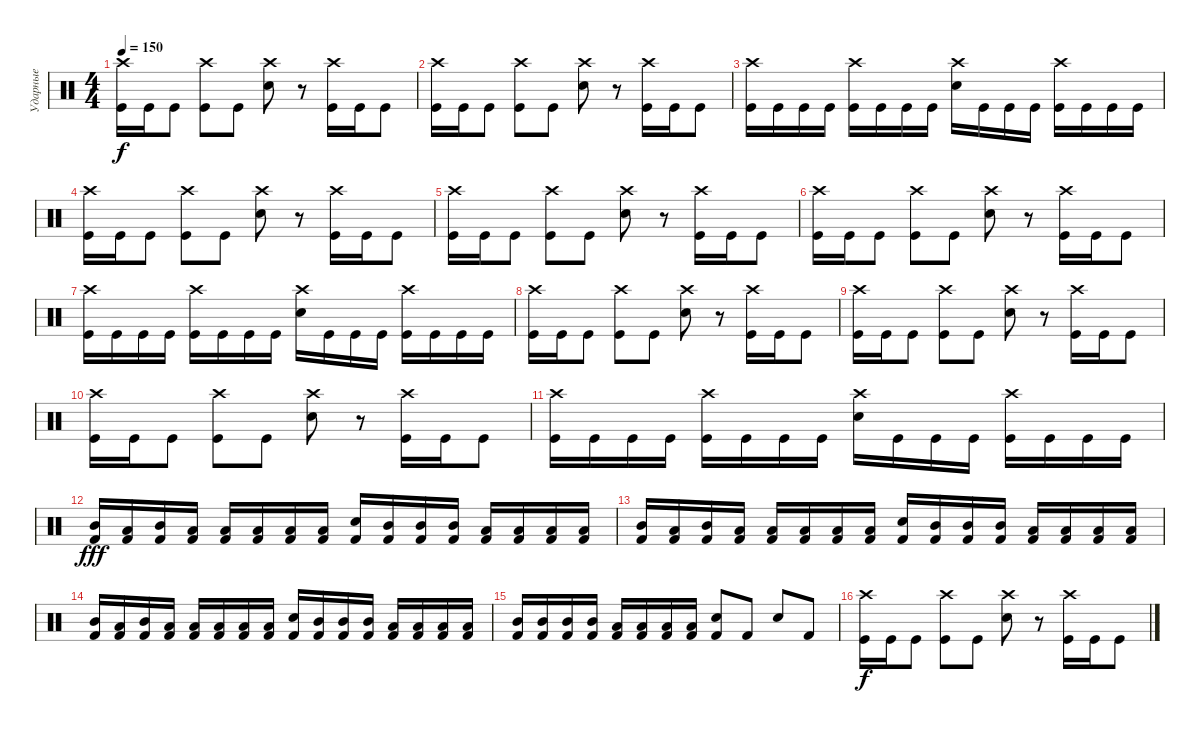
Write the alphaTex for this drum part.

\track ("Ударные" "Ударные") {instrument percussion}
\staff {score}
\articulation defaults
\ts (4 4)
\tempo 150
\clef neutral
\ks c
("Kick (hit)" "Crash high (hit)").16{dy f} "Kick (hit)".16 "Kick (hit)".8 ("Crash high (hit)" "Kick (hit)").8 "Kick (hit)".8 ("Snare (hit) 2" "Crash high (hit)").8 r.8 ("Kick (hit)" "Crash high (hit)").16 "Kick (hit)".16 "Kick (hit)".8 |
("Kick (hit)" "Crash high (hit)").16 "Kick (hit)".16 "Kick (hit)".8 ("Crash high (hit)" "Kick (hit)").8 "Kick (hit)".8 ("Snare (hit) 2" "Crash high (hit)").8 r.8 ("Kick (hit)" "Crash high (hit)").16 "Kick (hit)".16 "Kick (hit)".8 |
("Kick (hit)" "Crash high (hit)").16 "Kick (hit)".16 "Kick (hit)".16 "Kick (hit)".16 ("Kick (hit)" "Crash high (hit)").16 "Kick (hit)".16 "Kick (hit)".16 "Kick (hit)".16 ("Snare (hit) 2" "Crash high (hit)").16 "Kick (hit)".16 "Kick (hit)".16 "Kick (hit)".16 ("Kick (hit)" "Crash high (hit)").16 "Kick (hit)".16 "Kick (hit)".16 "Kick (hit)".16 |
("Kick (hit)" "Crash high (hit)").16 "Kick (hit)".16 "Kick (hit)".8 ("Crash high (hit)" "Kick (hit)").8 "Kick (hit)".8 ("Snare (hit) 2" "Crash high (hit)").8 r.8 ("Kick (hit)" "Crash high (hit)").16 "Kick (hit)".16 "Kick (hit)".8 |
("Kick (hit)" "Crash high (hit)").16 "Kick (hit)".16 "Kick (hit)".8 ("Crash high (hit)" "Kick (hit)").8 "Kick (hit)".8 ("Snare (hit) 2" "Crash high (hit)").8 r.8 ("Kick (hit)" "Crash high (hit)").16 "Kick (hit)".16 "Kick (hit)".8 |
("Kick (hit)" "Crash high (hit)").16 "Kick (hit)".16 "Kick (hit)".8 ("Crash high (hit)" "Kick (hit)").8 "Kick (hit)".8 ("Snare (hit) 2" "Crash high (hit)").8 r.8 ("Kick (hit)" "Crash high (hit)").16 "Kick (hit)".16 "Kick (hit)".8 |
("Kick (hit)" "Crash high (hit)").16 "Kick (hit)".16 "Kick (hit)".16 "Kick (hit)".16 ("Kick (hit)" "Crash high (hit)").16 "Kick (hit)".16 "Kick (hit)".16 "Kick (hit)".16 ("Snare (hit) 2" "Crash high (hit)").16 "Kick (hit)".16 "Kick (hit)".16 "Kick (hit)".16 ("Kick (hit)" "Crash high (hit)").16 "Kick (hit)".16 "Kick (hit)".16 "Kick (hit)".16 |
("Kick (hit)" "Crash high (hit)").16 "Kick (hit)".16 "Kick (hit)".8 ("Crash high (hit)" "Kick (hit)").8 "Kick (hit)".8 ("Snare (hit) 2" "Crash high (hit)").8 r.8 ("Kick (hit)" "Crash high (hit)").16 "Kick (hit)".16 "Kick (hit)".8 |
("Kick (hit)" "Crash high (hit)").16 "Kick (hit)".16 "Kick (hit)".8 ("Crash high (hit)" "Kick (hit)").8 "Kick (hit)".8 ("Snare (hit) 2" "Crash high (hit)").8 r.8 ("Kick (hit)" "Crash high (hit)").16 "Kick (hit)".16 "Kick (hit)".8 |
("Kick (hit)" "Crash high (hit)").16 "Kick (hit)".16 "Kick (hit)".8 ("Crash high (hit)" "Kick (hit)").8 "Kick (hit)".8 ("Snare (hit) 2" "Crash high (hit)").8 r.8 ("Kick (hit)" "Crash high (hit)").16 "Kick (hit)".16 "Kick (hit)".8 |
("Kick (hit)" "Crash high (hit)").16 "Kick (hit)".16 "Kick (hit)".16 "Kick (hit)".16 ("Kick (hit)" "Crash high (hit)").16 "Kick (hit)".16 "Kick (hit)".16 "Kick (hit)".16 ("Snare (hit) 2" "Crash high (hit)").16 "Kick (hit)".16 "Kick (hit)".16 "Kick (hit)".16 ("Kick (hit)" "Crash high (hit)").16 "Kick (hit)".16 "Kick (hit)".16 "Kick (hit)".16 |
("Mid Tom (hit)" "Kick (hit) 2").16{dy fff} ("Low Tom (hit)" "Kick (hit) 2").16 ("Mid Tom (hit)" "Kick (hit) 2").16 ("Low Tom (hit)" "Kick (hit) 2").16 ("Low Tom (hit)" "Kick (hit) 2").16 ("Low Floor Tom (hit)" "Kick (hit) 2").16 ("Low Tom (hit)" "Kick (hit) 2").16 ("Low Floor Tom (hit)" "Kick (hit) 2").16 ("Kick (hit) 2" "Electric Snare (hit)").16 ("Mid Tom (hit)" "Kick (hit) 2").16 ("Mid Tom (hit)" "Kick (hit) 2").16 ("Mid Tom (hit)" "Kick (hit) 2").16 ("Low Tom (hit)" "Kick (hit) 2").16 ("Low Tom (hit)" "Kick (hit) 2").16 ("Low Tom (hit)" "Kick (hit) 2").16 ("Low Tom (hit)" "Kick (hit) 2").16 |
("Mid Tom (hit)" "Kick (hit) 2").16 ("Low Tom (hit)" "Kick (hit) 2").16 ("Mid Tom (hit)" "Kick (hit) 2").16 ("Low Tom (hit)" "Kick (hit) 2").16 ("Low Tom (hit)" "Kick (hit) 2").16 ("Low Floor Tom (hit)" "Kick (hit) 2").16 ("Low Tom (hit)" "Kick (hit) 2").16 ("Low Floor Tom (hit)" "Kick (hit) 2").16 ("Kick (hit) 2" "Electric Snare (hit)").16 ("Mid Tom (hit)" "Kick (hit) 2").16 ("Mid Tom (hit)" "Kick (hit) 2").16 ("Mid Tom (hit)" "Kick (hit) 2").16 ("Low Tom (hit)" "Kick (hit) 2").16 ("Low Tom (hit)" "Kick (hit) 2").16 ("Low Tom (hit)" "Kick (hit) 2").16 ("Low Tom (hit)" "Kick (hit) 2").16 |
("Mid Tom (hit)" "Kick (hit) 2").16 ("Low Tom (hit)" "Kick (hit) 2").16 ("Mid Tom (hit)" "Kick (hit) 2").16 ("Low Tom (hit)" "Kick (hit) 2").16 ("Low Tom (hit)" "Kick (hit) 2").16 ("Low Floor Tom (hit)" "Kick (hit) 2").16 ("Low Tom (hit)" "Kick (hit) 2").16 ("Low Floor Tom (hit)" "Kick (hit) 2").16 ("Kick (hit) 2" "Electric Snare (hit)").16 ("Mid Tom (hit)" "Kick (hit) 2").16 ("Mid Tom (hit)" "Kick (hit) 2").16 ("Mid Tom (hit)" "Kick (hit) 2").16 ("Low Tom (hit)" "Kick (hit) 2").16 ("Low Tom (hit)" "Kick (hit) 2").16 ("Low Tom (hit)" "Kick (hit) 2").16 ("Low Tom (hit)" "Kick (hit) 2").16 |
("Mid Tom (hit)" "Kick (hit) 2").16 ("Mid Tom (hit)" "Kick (hit) 2").16 ("Mid Tom (hit)" "Kick (hit) 2").16 ("Mid Tom (hit)" "Kick (hit) 2").16 ("Low Tom (hit)" "Kick (hit) 2").16 ("Low Tom (hit)" "Kick (hit) 2").16 ("Low Floor Tom (hit)" "Kick (hit) 2").16 ("Low Floor Tom (hit)" "Kick (hit) 2").16 ("Kick (hit) 2" "Electric Snare (hit)").8 "Kick (hit) 2".8 "Electric Snare (hit)".8 "Kick (hit) 2".8 |
("Kick (hit)" "Crash high (hit)").16{dy f} "Kick (hit)".16 "Kick (hit)".8 ("Crash high (hit)" "Kick (hit)").8 "Kick (hit)".8 ("Snare (hit) 2" "Crash high (hit)").8 r.8 ("Kick (hit)" "Crash high (hit)").16 "Kick (hit)".16 "Kick (hit)".8
